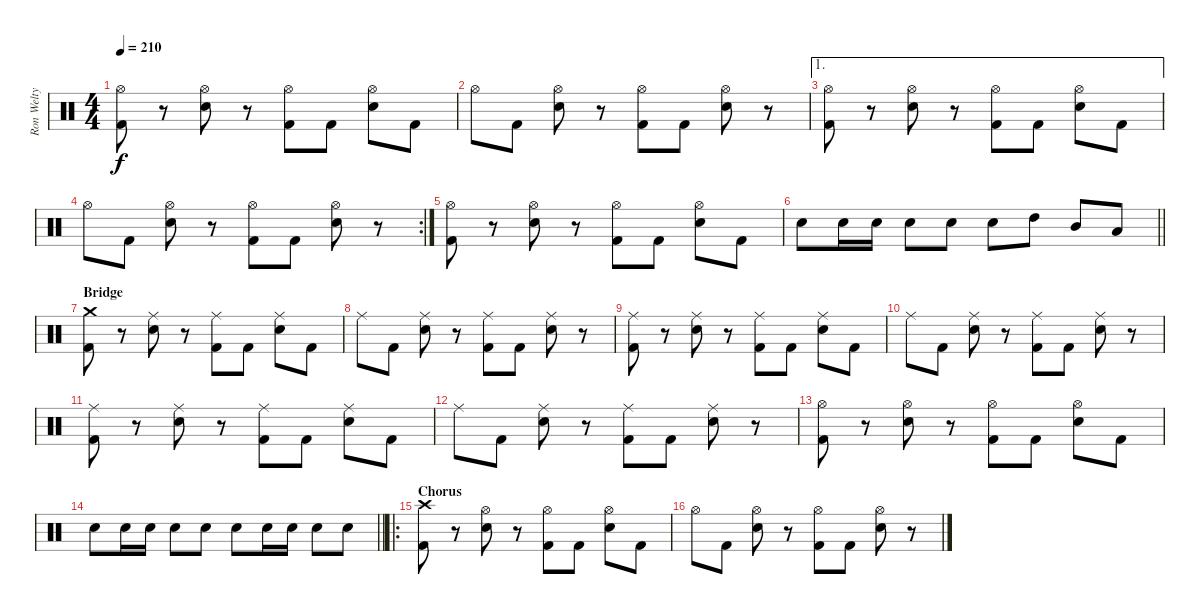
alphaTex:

\track ("Ron Welty" "Ron Welty") {instrument percussion}
\staff {score}
\articulation defaults
\ts (4 4)
\tempo 210
\clef neutral
\ks c
("Hi-Hat (open)" "Kick (hit) 2").8{dy f} r.8 ("Hi-Hat (open)" "Electric Snare (hit)").8 r.8 ("Hi-Hat (open)" "Kick (hit) 2").8 "Kick (hit) 2".8 ("Hi-Hat (open)" "Electric Snare (hit)").8 "Kick (hit) 2".8 |
"Hi-Hat (open)".8 "Kick (hit) 2".8 ("Hi-Hat (open)" "Electric Snare (hit)").8 r.8 ("Hi-Hat (open)" "Kick (hit) 2").8 "Kick (hit) 2".8 ("Hi-Hat (open)" "Electric Snare (hit)").8 r.8 |
\ae 1
("Hi-Hat (open)" "Kick (hit) 2").8 r.8 ("Hi-Hat (open)" "Electric Snare (hit)").8 r.8 ("Hi-Hat (open)" "Kick (hit) 2").8 "Kick (hit) 2".8 ("Hi-Hat (open)" "Electric Snare (hit)").8 "Kick (hit) 2".8 |
\rc 2 "Hi-Hat (open)".8 "Kick (hit) 2".8
("Hi-Hat (open)" "Electric Snare (hit)").8 r.8 ("Hi-Hat (open)" "Kick (hit) 2").8 "Kick (hit) 2".8 ("Hi-Hat (open)" "Electric Snare (hit)").8 r.8 |
("Hi-Hat (open)" "Kick (hit) 2").8 r.8 ("Hi-Hat (open)" "Electric Snare (hit)").8 r.8 ("Hi-Hat (open)" "Kick (hit) 2").8 "Kick (hit) 2".8 ("Hi-Hat (open)" "Electric Snare (hit)").8 "Kick (hit) 2".8 |
\barLineRight lightlight "Electric Snare (hit)".8 "Electric Snare (hit)".16 "Electric Snare (hit)".16 "Electric Snare (hit)".8 "Electric Snare (hit)".8 "Electric Snare (hit)".8 "High Tom (hit)".8 "Mid Tom (hit)".8 "Low Tom (hit)".8
|
\section ("" "Bridge")
("Crash medium (hit)" "Kick (hit) 2").8 r.8 ("Ride (middle)" "Electric Snare (hit)").8 r.8 ("Ride (middle)" "Kick (hit) 2").8 "Kick (hit) 2".8 ("Ride (middle)" "Electric Snare (hit)").8 "Kick (hit) 2".8 |
"Ride (middle)".8 "Kick (hit) 2".8 ("Ride (middle)" "Electric Snare (hit)").8 r.8 ("Ride (middle)" "Kick (hit) 2").8 "Kick (hit) 2".8 ("Ride (middle)" "Electric Snare (hit)").8 r.8 |
("Ride (middle)" "Kick (hit) 2").8 r.8 ("Ride (middle)" "Electric Snare (hit)").8 r.8 ("Ride (middle)" "Kick (hit) 2").8 "Kick (hit) 2".8 ("Ride (middle)" "Electric Snare (hit)").8 "Kick (hit) 2".8 |
"Ride (middle)".8 "Kick (hit) 2".8 ("Ride (middle)" "Electric Snare (hit)").8 r.8 ("Ride (middle)" "Kick (hit) 2").8 "Kick (hit) 2".8 ("Ride (middle)" "Electric Snare (hit)").8 r.8 |
("Ride (middle)" "Kick (hit) 2").8 r.8 ("Ride (middle)" "Electric Snare (hit)").8 r.8 ("Ride (middle)" "Kick (hit) 2").8 "Kick (hit) 2".8 ("Ride (middle)" "Electric Snare (hit)").8 "Kick (hit) 2".8 |
"Ride (middle)".8 "Kick (hit) 2".8 ("Ride (middle)" "Electric Snare (hit)").8 r.8 ("Ride (middle)" "Kick (hit) 2").8 "Kick (hit) 2".8 ("Ride (middle)" "Electric Snare (hit)").8 r.8 |
("Hi-Hat (open)" "Kick (hit) 2").8 r.8 ("Hi-Hat (open)" "Electric Snare (hit)").8 r.8 ("Hi-Hat (open)" "Kick (hit) 2").8 "Kick (hit) 2".8 ("Hi-Hat (open)" "Electric Snare (hit)").8 "Kick (hit) 2".8 |
\barLineRight lightlight "Electric Snare (hit)".8 "Electric Snare (hit)".16 "Electric Snare (hit)".16 "Electric Snare (hit)".8 "Electric Snare (hit)".8 "Electric Snare (hit)".8 "Electric Snare (hit)".16 "Electric Snare (hit)".16 "Electric Snare (hit)".8 "Electric Snare (hit)".8
|
\ro
\section ("" "Chorus")
("Crash high (hit)" "Kick (hit) 2").8 r.8 ("Hi-Hat (open)" "Electric Snare (hit)").8 r.8 ("Hi-Hat (open)" "Kick (hit) 2").8 "Kick (hit) 2".8 ("Hi-Hat (open)" "Electric Snare (hit)").8 "Kick (hit) 2".8 |
"Hi-Hat (open)".8 "Kick (hit) 2".8 ("Hi-Hat (open)" "Electric Snare (hit)").8 r.8 ("Hi-Hat (open)" "Kick (hit) 2").8 "Kick (hit) 2".8 ("Hi-Hat (open)" "Electric Snare (hit)").8 r.8
